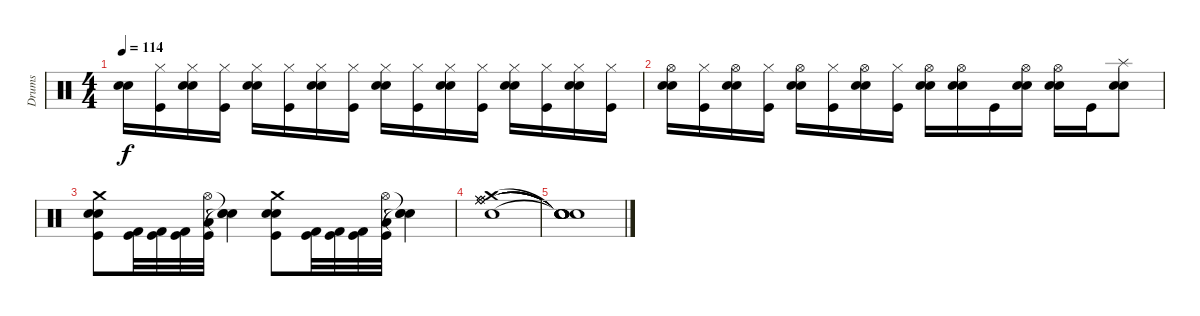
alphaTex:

\track ("Drums" "Drums") {instrument percussion}
\staff {score}
\articulation defaults
\ts (4 4)
\tempo 114
\clef neutral
\ks c
("Electric Snare (hit)" "Snare (hit) 2").16{dy f} ("Hi-Hat (closed)" "Kick (hit)").16 ("Electric Snare (hit)" "Hi-Hat (closed)" "Snare (hit) 2").16 ("Hi-Hat (closed)" "Kick (hit)").16 ("Electric Snare (hit)" "Hi-Hat (closed)" "Snare (hit) 2").16 ("Hi-Hat (closed)" "Kick (hit)").16 ("Electric Snare (hit)" "Hi-Hat (closed)" "Snare (hit) 2").16 ("Hi-Hat (closed)" "Kick (hit)").16 ("Electric Snare (hit)" "Hi-Hat (closed)" "Snare (hit) 2").16 ("Hi-Hat (closed)" "Kick (hit)").16 ("Electric Snare (hit)" "Hi-Hat (closed)" "Snare (hit) 2").16 ("Hi-Hat (closed)" "Kick (hit)").16 ("Electric Snare (hit)" "Hi-Hat (closed)" "Snare (hit) 2").16 ("Hi-Hat (closed)" "Kick (hit)").16 ("Electric Snare (hit)" "Hi-Hat (closed)" "Snare (hit) 2").16 ("Hi-Hat (closed)" "Kick (hit)").16 |
("Electric Snare (hit)" "Hi-Hat (open)" "Snare (hit) 2").16 ("Hi-Hat (closed)" "Kick (hit)").16 ("Electric Snare (hit)" "Hi-Hat (open)" "Snare (hit) 2").16 ("Hi-Hat (closed)" "Kick (hit)").16 ("Electric Snare (hit)" "Hi-Hat (open)" "Snare (hit) 2").16 ("Hi-Hat (closed)" "Kick (hit)").16 ("Electric Snare (hit)" "Hi-Hat (open)" "Snare (hit) 2").16 ("Hi-Hat (closed)" "Kick (hit)").16 ("Electric Snare (hit)" "Hi-Hat (open)" "Snare (hit) 2").16 ("Electric Snare (hit)" "Hi-Hat (open)" "Snare (hit) 2").16 "Kick (hit)".16 ("Snare (hit) 2" "Hi-Hat (open)" "Electric Snare (hit)").16 ("Snare (hit) 2" "Electric Snare (hit)" "Hi-Hat (open)").16 "Kick (hit)".16 ("Snare (hit) 2" "Splash (hit)" "Electric Snare (hit)").8 |
("Crash medium (hit)" "Snare (hit) 2" "Kick (hit)" "Electric Snare (hit)").8 ("Kick (hit) 2" "Kick (hit)").32 ("Kick (hit) 2" "Kick (hit)").32 ("Kick (hit) 2" "Kick (hit)").32 ("Hi-Hat (open)" "Kick (hit)" "Low Floor Tom (hit)").32 ("Snare (hit)"{t} "Snare (hit)"{t} "Snare (hit)"{t}).4 ("Crash medium (hit)" "Snare (hit) 2" "Kick (hit)" "Electric Snare (hit)").8 ("Kick (hit)" "Kick (hit) 2").32 ("Kick (hit)" "Kick (hit) 2").32 ("Kick (hit)" "Kick (hit) 2").32 ("Hi-Hat (open)" "Kick (hit)" "Low Floor Tom (hit)").32 ("Snare (hit)"{t} "Snare (hit)"{t} "Snare (hit)"{t}).4 |
("Crash medium (hit)" "Ride (middle)" "Ride (bell)" "Ride (middle)" "Ride (bell)" "Electric Snare (hit)").1 |
("Snare (hit)"{t} "Snare (hit)"{t} "Snare (hit)"{t} "Snare (hit)"{t} "Snare (hit)"{t} "Snare (hit)"{t}).1
